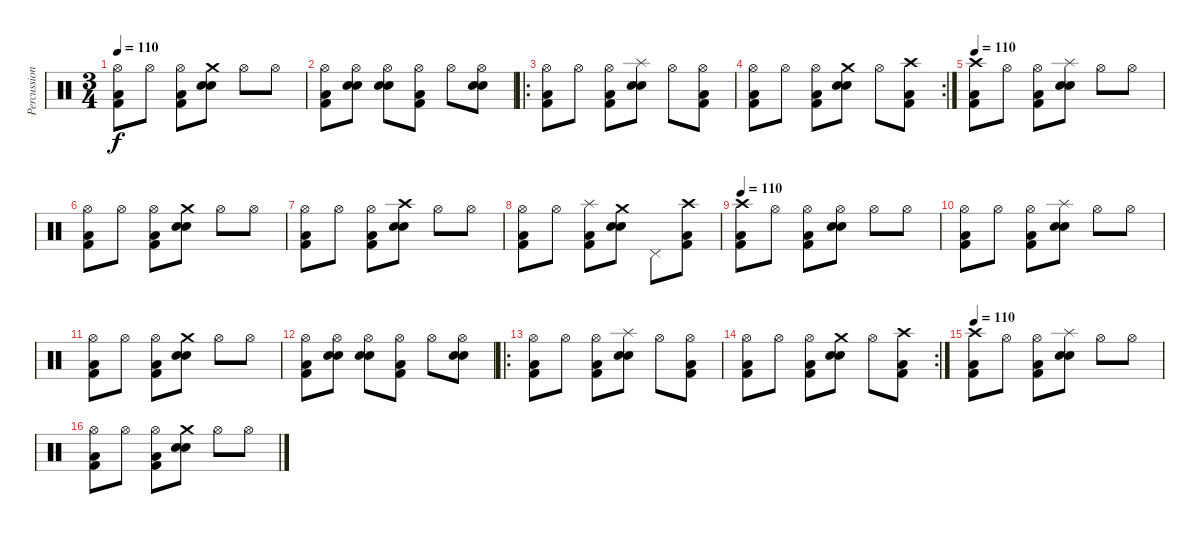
\track ("Percussions" "Percussion") {instrument percussion}
\staff {score}
\articulation defaults
\ts (3 4)
\tempo 110
\clef neutral
\ks c
("Hi-Hat (open)" "Kick (hit) 2" "Low Floor Tom (hit)").8{dy f} "Hi-Hat (open)".8 ("Hi-Hat (open)" "Kick (hit) 2" "Low Floor Tom (hit)").8 ("Crash medium (hit)" "Snare (hit) 2" "Electric Snare (hit)").8 "Hi-Hat (open)".8 "Hi-Hat (open)".8 |
("Hi-Hat (open)" "Kick (hit) 2" "Low Floor Tom (hit)").8 ("Hi-Hat (open)" "Snare (hit) 2" "Electric Snare (hit)").8 ("Hi-Hat (open)" "Snare (hit) 2" "Electric Snare (hit)").8 ("Hi-Hat (open)" "Kick (hit) 2" "Low Floor Tom (hit)").8 "Hi-Hat (open)".8 ("Hi-Hat (open)" "Snare (hit) 2" "Electric Snare (hit)").8 |
\ro
("Hi-Hat (open)" "Kick (hit) 2" "Low Floor Tom (hit)").8 "Hi-Hat (open)".8 ("Hi-Hat (open)" "Kick (hit) 2" "Low Floor Tom (hit)").8 ("Splash (hit)" "Snare (hit) 2" "Electric Snare (hit)").8 "Hi-Hat (open)".8 ("Hi-Hat (open)" "Kick (hit) 2" "Low Floor Tom (hit)").8 |
\rc 2
("Hi-Hat (open)" "Kick (hit) 2" "Low Floor Tom (hit)").8 "Hi-Hat (open)".8 ("Hi-Hat (open)" "Kick (hit) 2" "Low Floor Tom (hit)").8 ("Crash medium (hit)" "Snare (hit) 2" "Electric Snare (hit)").8 "Hi-Hat (open)".8 ("Crash high (hit)" "Kick (hit) 2" "Low Floor Tom (hit)").8 |
\tempo 110
("Crash high (hit)" "Kick (hit) 2" "Low Floor Tom (hit)").8 "Hi-Hat (open)".8 ("Hi-Hat (open)" "Kick (hit) 2" "Low Floor Tom (hit)").8 ("Splash (hit)" "Snare (hit) 2" "Electric Snare (hit)").8 "Hi-Hat (open)".8 "Hi-Hat (open)".8 |
("Hi-Hat (open)" "Kick (hit) 2" "Low Floor Tom (hit)").8 "Hi-Hat (open)".8 ("Hi-Hat (open)" "Kick (hit) 2" "Low Floor Tom (hit)").8 ("Crash medium (hit)" "Snare (hit) 2" "Electric Snare (hit)").8 "Hi-Hat (open)".8 "Hi-Hat (open)".8 |
("Hi-Hat (open)" "Kick (hit) 2" "Low Floor Tom (hit)").8 "Hi-Hat (open)".8 ("Hi-Hat (open)" "Kick (hit) 2" "Low Floor Tom (hit)").8 ("Crash high (hit)" "Snare (hit) 2" "Electric Snare (hit)").8 "Hi-Hat (open)".8 "Hi-Hat (open)".8 |
("Hi-Hat (open)" "Kick (hit) 2" "Low Floor Tom (hit)").8 "Hi-Hat (open)".8 ("Splash (hit)" "Kick (hit) 2" "Low Floor Tom (hit)").8 ("Crash medium (hit)" "Snare (hit) 2" "Electric Snare (hit)").8 "Pedal Hi-Hat (hit)".8 ("Crash high (hit)" "Kick (hit) 2" "Low Floor Tom (hit)").8 |
\tempo 110
("Crash high (hit)" "Kick (hit) 2" "Low Floor Tom (hit)").8 "Hi-Hat (open)".8 ("Hi-Hat (open)" "Kick (hit) 2" "Low Floor Tom (hit)").8 ("Hi-Hat (open)" "Snare (hit) 2" "Electric Snare (hit)").8 "Hi-Hat (open)".8 "Hi-Hat (open)".8 |
("Hi-Hat (open)" "Kick (hit) 2" "Low Floor Tom (hit)").8 "Hi-Hat (open)".8 ("Hi-Hat (open)" "Kick (hit) 2" "Low Floor Tom (hit)").8 ("Splash (hit)" "Snare (hit) 2" "Electric Snare (hit)").8 "Hi-Hat (open)".8 "Hi-Hat (open)".8 |
("Hi-Hat (open)" "Kick (hit) 2" "Low Floor Tom (hit)").8 "Hi-Hat (open)".8 ("Hi-Hat (open)" "Kick (hit) 2" "Low Floor Tom (hit)").8 ("Crash medium (hit)" "Snare (hit) 2" "Electric Snare (hit)").8 "Hi-Hat (open)".8 "Hi-Hat (open)".8 |
("Hi-Hat (open)" "Kick (hit) 2" "Low Floor Tom (hit)").8 ("Hi-Hat (open)" "Snare (hit) 2" "Electric Snare (hit)").8 ("Hi-Hat (open)" "Snare (hit) 2" "Electric Snare (hit)").8 ("Hi-Hat (open)" "Kick (hit) 2" "Low Floor Tom (hit)").8 "Hi-Hat (open)".8 ("Hi-Hat (open)" "Snare (hit) 2" "Electric Snare (hit)").8 |
\ro
("Hi-Hat (open)" "Kick (hit) 2" "Low Floor Tom (hit)").8 "Hi-Hat (open)".8 ("Hi-Hat (open)" "Kick (hit) 2" "Low Floor Tom (hit)").8 ("Splash (hit)" "Snare (hit) 2" "Electric Snare (hit)").8 "Hi-Hat (open)".8 ("Hi-Hat (open)" "Kick (hit) 2" "Low Floor Tom (hit)").8 |
\rc 2
("Hi-Hat (open)" "Kick (hit) 2" "Low Floor Tom (hit)").8 "Hi-Hat (open)".8 ("Hi-Hat (open)" "Kick (hit) 2" "Low Floor Tom (hit)").8 ("Crash medium (hit)" "Snare (hit) 2" "Electric Snare (hit)").8 "Hi-Hat (open)".8 ("Crash high (hit)" "Kick (hit) 2" "Low Floor Tom (hit)").8 |
\tempo 110
("Crash high (hit)" "Kick (hit) 2" "Low Floor Tom (hit)").8 "Hi-Hat (open)".8 ("Hi-Hat (open)" "Kick (hit) 2" "Low Floor Tom (hit)").8 ("Splash (hit)" "Snare (hit) 2" "Electric Snare (hit)").8 "Hi-Hat (open)".8 "Hi-Hat (open)".8 |
("Hi-Hat (open)" "Kick (hit) 2" "Low Floor Tom (hit)").8 "Hi-Hat (open)".8 ("Hi-Hat (open)" "Kick (hit) 2" "Low Floor Tom (hit)").8 ("Crash medium (hit)" "Snare (hit) 2" "Electric Snare (hit)").8 "Hi-Hat (open)".8 "Hi-Hat (open)".8
